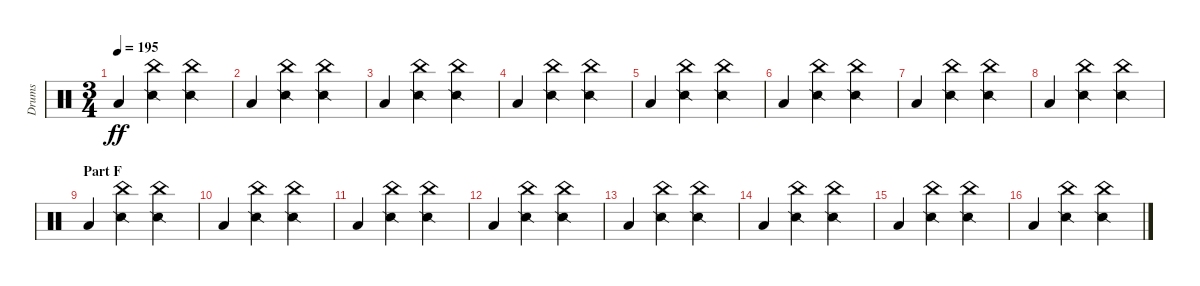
\track ("Drums" "Drums") {instrument percussion}
\staff {score}
\articulation defaults
\ts (3 4)
\tempo 195
\clef neutral
\ks c "Low Floor Tom (hit)".4{dy ff}
("China (hit)" "Snare (side stick) 2").4 ("China (hit)" "Snare (side stick) 2").4 |
"Low Floor Tom (hit)".4 ("China (hit)" "Snare (side stick) 2").4 ("China (hit)" "Snare (side stick) 2").4 |
"Low Floor Tom (hit)".4 ("China (hit)" "Snare (side stick) 2").4 ("China (hit)" "Snare (side stick) 2").4 |
"Low Floor Tom (hit)".4 ("China (hit)" "Snare (side stick) 2").4 ("China (hit)" "Snare (side stick) 2").4 |
"Low Floor Tom (hit)".4 ("China (hit)" "Snare (side stick) 2").4 ("China (hit)" "Snare (side stick) 2").4 |
"Low Floor Tom (hit)".4 ("China (hit)" "Snare (side stick) 2").4 ("China (hit)" "Snare (side stick) 2").4 |
"Low Floor Tom (hit)".4 ("China (hit)" "Snare (side stick) 2").4 ("China (hit)" "Snare (side stick) 2").4 |
"Low Floor Tom (hit)".4 ("China (hit)" "Snare (side stick) 2").4 ("China (hit)" "Snare (side stick) 2").4 |
\section ("" "Part F")
"Low Floor Tom (hit)".4 ("China (hit)" "Snare (side stick) 2").4 ("China (hit)" "Snare (side stick) 2").4 |
"Low Floor Tom (hit)".4 ("China (hit)" "Snare (side stick) 2").4 ("China (hit)" "Snare (side stick) 2").4 |
"Low Floor Tom (hit)".4 ("China (hit)" "Snare (side stick) 2").4 ("China (hit)" "Snare (side stick) 2").4 |
"Low Floor Tom (hit)".4 ("China (hit)" "Snare (side stick) 2").4 ("China (hit)" "Snare (side stick) 2").4 |
"Low Floor Tom (hit)".4 ("China (hit)" "Snare (side stick) 2").4 ("China (hit)" "Snare (side stick) 2").4 |
"Low Floor Tom (hit)".4 ("China (hit)" "Snare (side stick) 2").4 ("China (hit)" "Snare (side stick) 2").4 |
"Low Floor Tom (hit)".4 ("China (hit)" "Snare (side stick) 2").4 ("China (hit)" "Snare (side stick) 2").4 |
"Low Floor Tom (hit)".4 ("China (hit)" "Snare (side stick) 2").4 ("China (hit)" "Snare (side stick) 2").4
